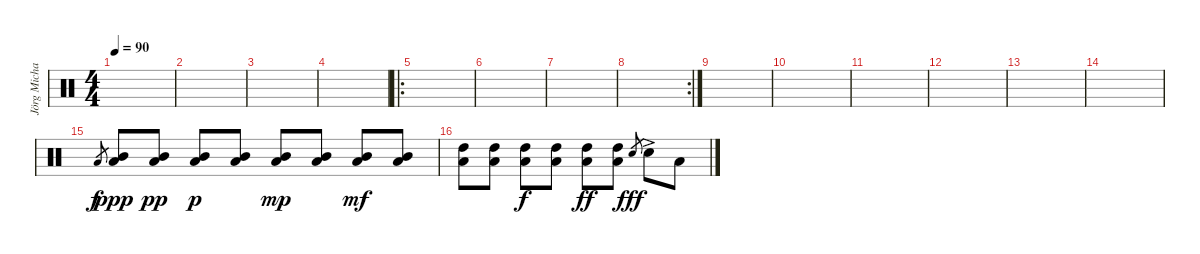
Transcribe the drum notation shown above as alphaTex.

\track ("Jörg Michael Drums" "Jörg Micha") {instrument percussion}
\staff {score}
\articulation defaults
\ts (4 4)
\tempo 90
\clef neutral
\ks c
|
|
|
|
\ro
|
|
|
\rc 2
|
|
|
|
|
|
|
"Low Floor Tom (hit)".8{gr} ("Mid Tom (hit)" "Low Floor Tom (hit)").8{dy ppp} ("Mid Tom (hit)" "Low Floor Tom (hit)").8{dy pp} ("Mid Tom (hit)" "Low Floor Tom (hit)").8{dy p} ("Mid Tom (hit)" "Low Floor Tom (hit)").8 ("Mid Tom (hit)" "Low Floor Tom (hit)").8{dy mp} ("Mid Tom (hit)" "Low Floor Tom (hit)").8 ("Mid Tom (hit)" "Low Floor Tom (hit)").8{dy mf} ("Mid Tom (hit)" "Low Floor Tom (hit)").8 |
("High Tom (hit)" "Low Floor Tom (hit)").8 ("High Tom (hit)" "Low Floor Tom (hit)").8 ("High Tom (hit)" "Low Floor Tom (hit)").8{dy f} ("High Tom (hit)" "Low Floor Tom (hit)").8 ("High Tom (hit)" "Low Floor Tom (hit)").8{dy ff} ("High Tom (hit)" "Low Floor Tom (hit)").8 "Electric Snare (hit)".8{gr dy fff} "Electric Snare (hit)"{ac}.8 "Low Tom (hit)".8
